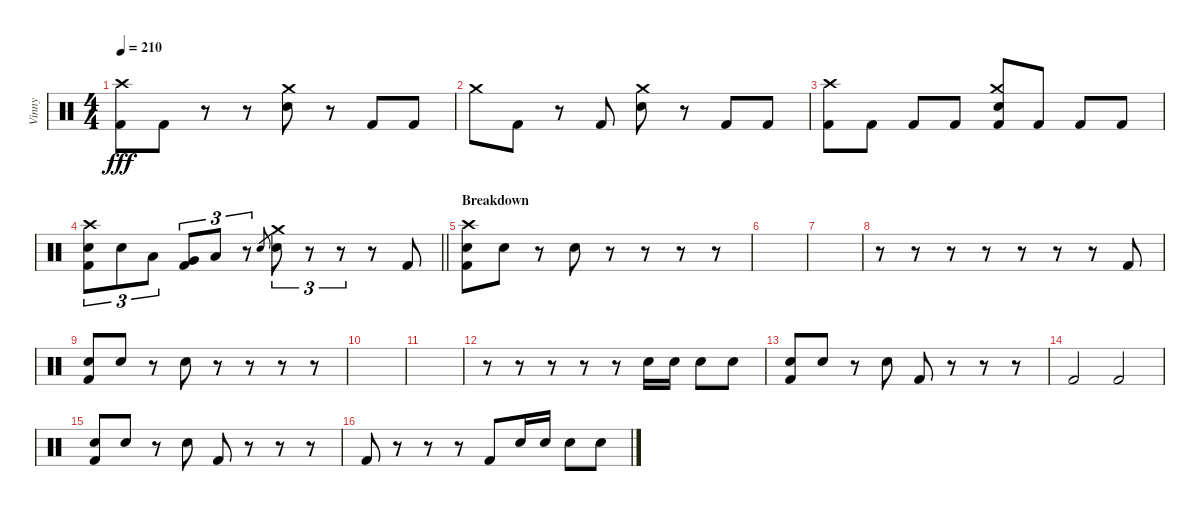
\track ("Vinny" "Vinny") {instrument percussion}
\staff {score}
\articulation defaults
\ts (4 4)
\tempo 210
\clef neutral
\ks c
("Crash high (hit)" "Kick (hit) 2").8{dy fff} "Kick (hit) 2".8 r.8 r.8 ("Crash medium (hit)" "Electric Snare (hit)").8 r.8 "Kick (hit) 2".8 "Kick (hit) 2".8 |
"Crash medium (hit)".8 "Kick (hit) 2".8 r.8 "Kick (hit) 2".8 ("Crash medium (hit)" "Electric Snare (hit)").8 r.8 "Kick (hit) 2".8 "Kick (hit) 2".8 |
("Crash high (hit)" "Kick (hit) 2").8 "Kick (hit) 2".8 "Kick (hit) 2".8 "Kick (hit) 2".8 ("Crash medium (hit)" "Electric Snare (hit)" "Kick (hit) 2").8 "Kick (hit) 2".8 "Kick (hit) 2".8 "Kick (hit) 2".8 |
\barLineRight lightlight
("Crash high (hit)" "Electric Snare (hit)" "Kick (hit) 2").8{tu (3 2)} "Snare (hit) 2".8{tu (3 2)} "Low Tom (hit)".8{tu (3 2)} ("Very Low Tom (hit)" "Kick (hit) 2").8{tu (3 2)} "Low Floor Tom (hit)".8{tu (3 2)} r.8{tu (3 2)} "Electric Snare (hit)".8{gr} ("Crash medium (hit)" "Electric Snare (hit)").8{tu (3 2)} r.8{tu (3 2)} r.8{tu (3 2)} r.8 "Kick (hit) 2".8 |
\section ("" "Breakdown")
("Crash high (hit)" "Electric Snare (hit)" "Kick (hit) 2").8 "Electric Snare (hit)".8 r.8 "Electric Snare (hit)".8 r.8 r.8 r.8 r.8 |
|
|
r.8 r.8 r.8 r.8 r.8 r.8 r.8 "Kick (hit) 2".8 |
("Electric Snare (hit)" "Kick (hit) 2").8 "Electric Snare (hit)".8 r.8 "Electric Snare (hit)".8 r.8 r.8 r.8 r.8 |
|
|
r.8 r.8 r.8 r.8 r.8 "Electric Snare (hit)".16 "Electric Snare (hit)".16 "Electric Snare (hit)".8 "Electric Snare (hit)".8 |
("Electric Snare (hit)" "Kick (hit) 2").8 "Electric Snare (hit)".8 r.8 "Electric Snare (hit)".8 "Kick (hit) 2".8 r.8 r.8 r.8 |
"Kick (hit) 2".2 "Kick (hit) 2".2 |
("Electric Snare (hit)" "Kick (hit) 2").8 "Electric Snare (hit)".8 r.8 "Electric Snare (hit)".8 "Kick (hit) 2".8 r.8 r.8 r.8 |
"Kick (hit) 2".8 r.8 r.8 r.8 "Kick (hit) 2".8 "Electric Snare (hit)".16 "Electric Snare (hit)".16 "Electric Snare (hit)".8 "Electric Snare (hit)".8
